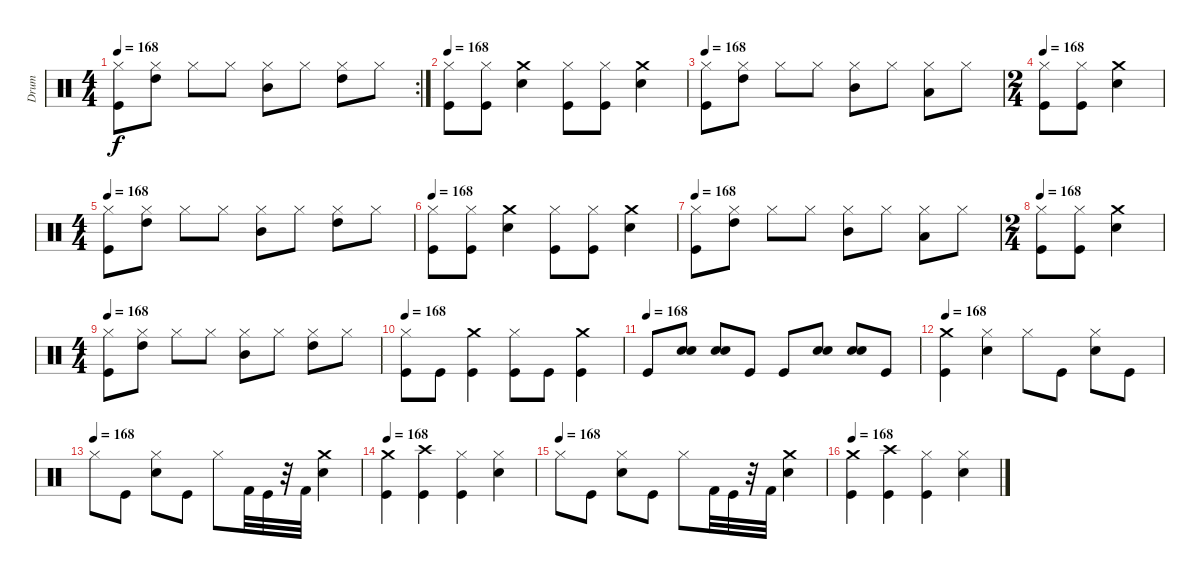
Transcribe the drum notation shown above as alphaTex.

\track ("Drum" "Drum") {instrument percussion}
\staff {score}
\articulation defaults
\rc 2
\ts (4 4)
\tempo 168
\clef neutral
\ks c
("Hi-Hat (closed)" "Kick (hit)").8{dy f} ("Hi-Hat (closed)" "High Tom (hit)").8 "Hi-Hat (closed)".8 "Hi-Hat (closed)".8 ("Hi-Hat (closed)" "Mid Tom (hit)").8 "Hi-Hat (closed)".8 ("Hi-Hat (closed)" "High Tom (hit)").8 "Hi-Hat (closed)".8 |
\tempo 168
("Hi-Hat (closed)" "Kick (hit)").8 ("Hi-Hat (closed)" "Kick (hit)").8 ("Crash medium (hit)" "Snare (hit) 2").4 ("Hi-Hat (closed)" "Kick (hit)").8 ("Hi-Hat (closed)" "Kick (hit)").8 ("Crash medium (hit)" "Snare (hit) 2").4 |
\tempo 168
("Hi-Hat (closed)" "Kick (hit)").8 ("Hi-Hat (closed)" "High Tom (hit)").8 "Hi-Hat (closed)".8 "Hi-Hat (closed)".8 ("Hi-Hat (closed)" "Mid Tom (hit)").8 "Hi-Hat (closed)".8 ("Hi-Hat (closed)" "Low Tom (hit)").8 "Hi-Hat (closed)".8 |
\ts (2 4)
\tempo 168
("Hi-Hat (closed)" "Kick (hit)").8 ("Hi-Hat (closed)" "Kick (hit)").8 ("Crash medium (hit)" "Snare (hit) 2").4 |
\ts (4 4)
\tempo 168
("Hi-Hat (closed)" "Kick (hit)").8 ("Hi-Hat (closed)" "High Tom (hit)").8 "Hi-Hat (closed)".8 "Hi-Hat (closed)".8 ("Hi-Hat (closed)" "Mid Tom (hit)").8 "Hi-Hat (closed)".8 ("Hi-Hat (closed)" "High Tom (hit)").8 "Hi-Hat (closed)".8 |
\tempo 168
("Hi-Hat (closed)" "Kick (hit)").8 ("Hi-Hat (closed)" "Kick (hit)").8 ("Crash medium (hit)" "Snare (hit) 2").4 ("Hi-Hat (closed)" "Kick (hit)").8 ("Hi-Hat (closed)" "Kick (hit)").8 ("Crash medium (hit)" "Snare (hit) 2").4 |
\tempo 168
("Hi-Hat (closed)" "Kick (hit)").8 ("Hi-Hat (closed)" "High Tom (hit)").8 "Hi-Hat (closed)".8 "Hi-Hat (closed)".8 ("Hi-Hat (closed)" "Mid Tom (hit)").8 "Hi-Hat (closed)".8 ("Hi-Hat (closed)" "Low Tom (hit)").8 "Hi-Hat (closed)".8 |
\ts (2 4)
\tempo 168
("Hi-Hat (closed)" "Kick (hit)").8 ("Hi-Hat (closed)" "Kick (hit)").8 ("Crash medium (hit)" "Snare (hit) 2").4 |
\ts (4 4)
\tempo 168
("Hi-Hat (closed)" "Kick (hit)").8 ("Hi-Hat (closed)" "High Tom (hit)").8 "Hi-Hat (closed)".8 "Hi-Hat (closed)".8 ("Hi-Hat (closed)" "Mid Tom (hit)").8 "Hi-Hat (closed)".8 ("Hi-Hat (closed)" "High Tom (hit)").8 "Hi-Hat (closed)".8 |
\tempo 168
("Hi-Hat (closed)" "Kick (hit)").8 "Kick (hit)".8 ("Crash medium (hit)" "Kick (hit)").4 ("Hi-Hat (closed)" "Kick (hit)").8 "Kick (hit)".8 ("Crash medium (hit)" "Kick (hit)").4 |
\tempo (168)
"Kick (hit)".8 ("Snare (hit) 2" "Snare (hit) 2").8 ("Snare (hit) 2" "Snare (hit) 2").8 "Kick (hit)".8 "Kick (hit)".8 ("Snare (hit) 2" "Snare (hit) 2").8 ("Snare (hit) 2" "Snare (hit) 2").8 "Kick (hit)".8 |
\tempo 168
("Crash medium (hit)" "Kick (hit)").4 ("Hi-Hat (closed)" "Snare (hit) 2").4 "Hi-Hat (closed)".8 "Kick (hit)".8 ("Hi-Hat (closed)" "Snare (hit) 2").8 "Kick (hit)".8 |
\tempo (168)
"Hi-Hat (closed)".8 "Kick (hit)".8 ("Hi-Hat (closed)" "Snare (hit) 2").8 "Kick (hit)".8 "Hi-Hat (closed)".8 "Kick (hit) 2".32 "Kick (hit)".32 r.32 "Kick (hit) 2".32 ("Crash medium (hit)" "Snare (hit) 2").4 |
\tempo 168
("Crash medium (hit)" "Kick (hit)").4 ("Crash high (hit)" "Kick (hit)").4 ("Hi-Hat (closed)" "Kick (hit)").4 ("Hi-Hat (closed)" "Snare (hit) 2").4 |
\tempo (168)
"Hi-Hat (closed)".8 "Kick (hit)".8 ("Hi-Hat (closed)" "Snare (hit) 2").8 "Kick (hit)".8 "Hi-Hat (closed)".8 "Kick (hit) 2".32 "Kick (hit)".32 r.32 "Kick (hit) 2".32 ("Crash medium (hit)" "Snare (hit) 2").4 |
\tempo 168
("Crash medium (hit)" "Kick (hit)").4 ("Crash high (hit)" "Kick (hit)").4 ("Hi-Hat (closed)" "Kick (hit)").4 ("Hi-Hat (closed)" "Snare (hit) 2").4
